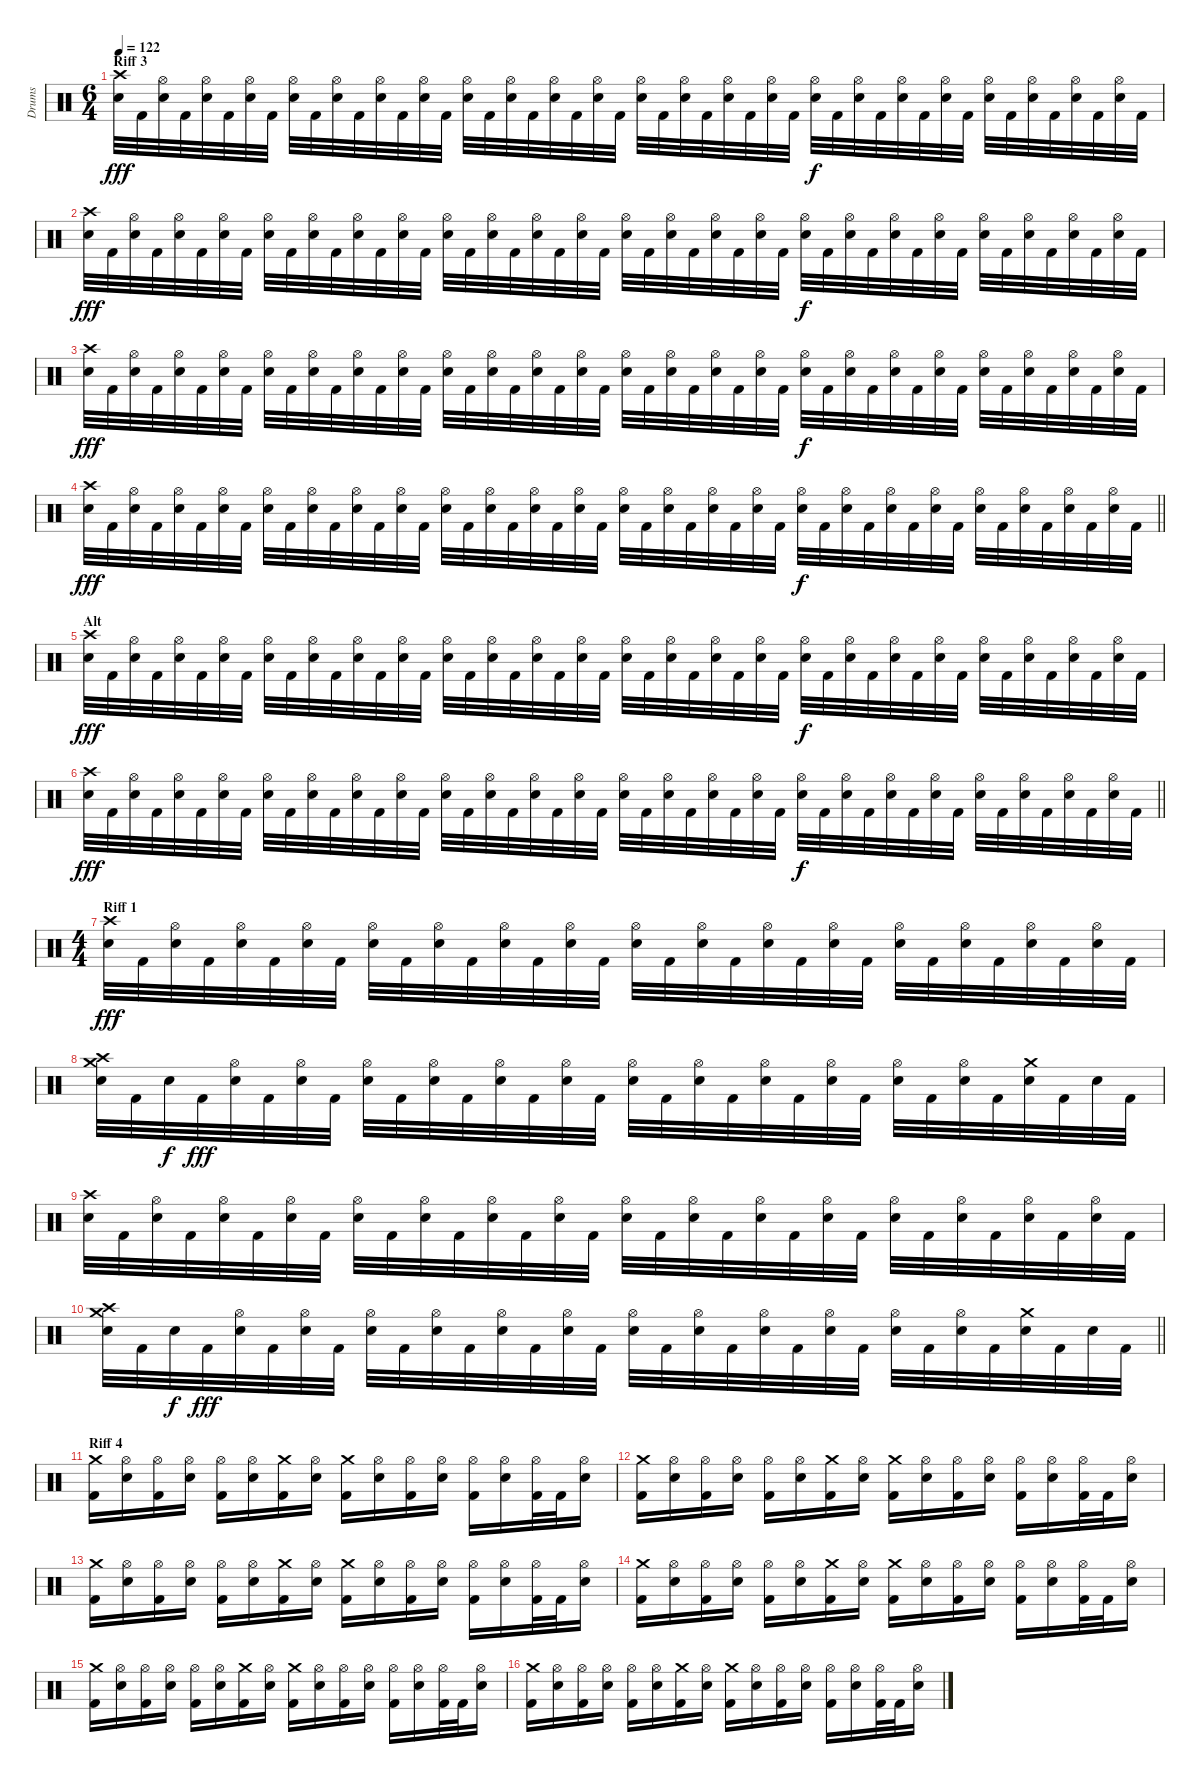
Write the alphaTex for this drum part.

\track ("Drums" "Drums") {instrument percussion}
\staff {score}
\articulation defaults
\ts (6 4)
\section ("" "Riff 3")
\tempo 122
\clef neutral
\ks c
("Snare (hit) 2" "Crash high (hit)").32{dy fff} "Kick (hit) 2".32 ("Snare (hit) 2" "Hi-Hat (open)").32 "Kick (hit) 2".32 ("Hi-Hat (open)" "Snare (hit) 2").32 "Kick (hit) 2".32 ("Snare (hit) 2" "Hi-Hat (open)").32 "Kick (hit) 2".32 ("Hi-Hat (open)" "Snare (hit) 2").32 "Kick (hit) 2".32 ("Snare (hit) 2" "Hi-Hat (open)").32 "Kick (hit) 2".32 ("Snare (hit) 2" "Hi-Hat (open)").32 "Kick (hit) 2".32 ("Hi-Hat (open)" "Snare (hit) 2").32 "Kick (hit) 2".32 ("Snare (hit) 2" "Hi-Hat (open)").32 "Kick (hit) 2".32 ("Hi-Hat (open)" "Snare (hit) 2").32 "Kick (hit) 2".32 ("Snare (hit) 2" "Hi-Hat (open)").32 "Kick (hit) 2".32 ("Snare (hit) 2" "Hi-Hat (open)").32 "Kick (hit) 2".32 ("Hi-Hat (open)" "Snare (hit) 2").32 "Kick (hit) 2".32 ("Snare (hit) 2" "Hi-Hat (open)").32 "Kick (hit) 2".32 ("Hi-Hat (open)" "Snare (hit) 2").32 "Kick (hit) 2".32 ("Snare (hit) 2" "Hi-Hat (open)").32 "Kick (hit) 2".32 ("Snare (hit) 2" "Hi-Hat (open)").32{dy f} "Kick (hit) 2".32 ("Snare (hit) 2" "Hi-Hat (open)").32 "Kick (hit) 2".32 ("Snare (hit) 2" "Hi-Hat (open)").32 "Kick (hit) 2".32 ("Snare (hit) 2" "Hi-Hat (open)").32 "Kick (hit) 2".32 ("Snare (hit) 2" "Hi-Hat (open)").32 "Kick (hit) 2".32 ("Snare (hit) 2" "Hi-Hat (open)").32 "Kick (hit) 2".32 ("Snare (hit) 2" "Hi-Hat (open)").32 "Kick (hit) 2".32 ("Snare (hit) 2" "Hi-Hat (open)").32 "Kick (hit) 2".32 |
("Snare (hit) 2" "Crash high (hit)").32{dy fff} "Kick (hit) 2".32 ("Snare (hit) 2" "Hi-Hat (open)").32 "Kick (hit) 2".32 ("Hi-Hat (open)" "Snare (hit) 2").32 "Kick (hit) 2".32 ("Snare (hit) 2" "Hi-Hat (open)").32 "Kick (hit) 2".32 ("Hi-Hat (open)" "Snare (hit) 2").32 "Kick (hit) 2".32 ("Snare (hit) 2" "Hi-Hat (open)").32 "Kick (hit) 2".32 ("Snare (hit) 2" "Hi-Hat (open)").32 "Kick (hit) 2".32 ("Hi-Hat (open)" "Snare (hit) 2").32 "Kick (hit) 2".32 ("Snare (hit) 2" "Hi-Hat (open)").32 "Kick (hit) 2".32 ("Hi-Hat (open)" "Snare (hit) 2").32 "Kick (hit) 2".32 ("Snare (hit) 2" "Hi-Hat (open)").32 "Kick (hit) 2".32 ("Snare (hit) 2" "Hi-Hat (open)").32 "Kick (hit) 2".32 ("Hi-Hat (open)" "Snare (hit) 2").32 "Kick (hit) 2".32 ("Snare (hit) 2" "Hi-Hat (open)").32 "Kick (hit) 2".32 ("Hi-Hat (open)" "Snare (hit) 2").32 "Kick (hit) 2".32 ("Snare (hit) 2" "Hi-Hat (open)").32 "Kick (hit) 2".32 ("Snare (hit) 2" "Hi-Hat (open)").32{dy f} "Kick (hit) 2".32 ("Snare (hit) 2" "Hi-Hat (open)").32 "Kick (hit) 2".32 ("Snare (hit) 2" "Hi-Hat (open)").32 "Kick (hit) 2".32 ("Snare (hit) 2" "Hi-Hat (open)").32 "Kick (hit) 2".32 ("Snare (hit) 2" "Hi-Hat (open)").32 "Kick (hit) 2".32 ("Snare (hit) 2" "Hi-Hat (open)").32 "Kick (hit) 2".32 ("Snare (hit) 2" "Hi-Hat (open)").32 "Kick (hit) 2".32 ("Snare (hit) 2" "Hi-Hat (open)").32 "Kick (hit) 2".32 |
("Snare (hit) 2" "Crash high (hit)").32{dy fff} "Kick (hit) 2".32 ("Snare (hit) 2" "Hi-Hat (open)").32 "Kick (hit) 2".32 ("Hi-Hat (open)" "Snare (hit) 2").32 "Kick (hit) 2".32 ("Snare (hit) 2" "Hi-Hat (open)").32 "Kick (hit) 2".32 ("Hi-Hat (open)" "Snare (hit) 2").32 "Kick (hit) 2".32 ("Snare (hit) 2" "Hi-Hat (open)").32 "Kick (hit) 2".32 ("Snare (hit) 2" "Hi-Hat (open)").32 "Kick (hit) 2".32 ("Hi-Hat (open)" "Snare (hit) 2").32 "Kick (hit) 2".32 ("Snare (hit) 2" "Hi-Hat (open)").32 "Kick (hit) 2".32 ("Hi-Hat (open)" "Snare (hit) 2").32 "Kick (hit) 2".32 ("Snare (hit) 2" "Hi-Hat (open)").32 "Kick (hit) 2".32 ("Snare (hit) 2" "Hi-Hat (open)").32 "Kick (hit) 2".32 ("Hi-Hat (open)" "Snare (hit) 2").32 "Kick (hit) 2".32 ("Snare (hit) 2" "Hi-Hat (open)").32 "Kick (hit) 2".32 ("Hi-Hat (open)" "Snare (hit) 2").32 "Kick (hit) 2".32 ("Snare (hit) 2" "Hi-Hat (open)").32 "Kick (hit) 2".32 ("Snare (hit) 2" "Hi-Hat (open)").32{dy f} "Kick (hit) 2".32 ("Snare (hit) 2" "Hi-Hat (open)").32 "Kick (hit) 2".32 ("Snare (hit) 2" "Hi-Hat (open)").32 "Kick (hit) 2".32 ("Snare (hit) 2" "Hi-Hat (open)").32 "Kick (hit) 2".32 ("Snare (hit) 2" "Hi-Hat (open)").32 "Kick (hit) 2".32 ("Snare (hit) 2" "Hi-Hat (open)").32 "Kick (hit) 2".32 ("Snare (hit) 2" "Hi-Hat (open)").32 "Kick (hit) 2".32 ("Snare (hit) 2" "Hi-Hat (open)").32 "Kick (hit) 2".32 |
\barLineRight lightlight
("Snare (hit) 2" "Crash high (hit)").32{dy fff} "Kick (hit) 2".32 ("Snare (hit) 2" "Hi-Hat (open)").32 "Kick (hit) 2".32 ("Hi-Hat (open)" "Snare (hit) 2").32 "Kick (hit) 2".32 ("Snare (hit) 2" "Hi-Hat (open)").32 "Kick (hit) 2".32 ("Hi-Hat (open)" "Snare (hit) 2").32 "Kick (hit) 2".32 ("Snare (hit) 2" "Hi-Hat (open)").32 "Kick (hit) 2".32 ("Snare (hit) 2" "Hi-Hat (open)").32 "Kick (hit) 2".32 ("Hi-Hat (open)" "Snare (hit) 2").32 "Kick (hit) 2".32 ("Snare (hit) 2" "Hi-Hat (open)").32 "Kick (hit) 2".32 ("Hi-Hat (open)" "Snare (hit) 2").32 "Kick (hit) 2".32 ("Snare (hit) 2" "Hi-Hat (open)").32 "Kick (hit) 2".32 ("Snare (hit) 2" "Hi-Hat (open)").32 "Kick (hit) 2".32 ("Hi-Hat (open)" "Snare (hit) 2").32 "Kick (hit) 2".32 ("Snare (hit) 2" "Hi-Hat (open)").32 "Kick (hit) 2".32 ("Hi-Hat (open)" "Snare (hit) 2").32 "Kick (hit) 2".32 ("Snare (hit) 2" "Hi-Hat (open)").32 "Kick (hit) 2".32 ("Snare (hit) 2" "Hi-Hat (open)").32{dy f} "Kick (hit) 2".32 ("Snare (hit) 2" "Hi-Hat (open)").32 "Kick (hit) 2".32 ("Snare (hit) 2" "Hi-Hat (open)").32 "Kick (hit) 2".32 ("Snare (hit) 2" "Hi-Hat (open)").32 "Kick (hit) 2".32 ("Snare (hit) 2" "Hi-Hat (open)").32 "Kick (hit) 2".32 ("Snare (hit) 2" "Hi-Hat (open)").32 "Kick (hit) 2".32 ("Snare (hit) 2" "Hi-Hat (open)").32 "Kick (hit) 2".32 ("Snare (hit) 2" "Hi-Hat (open)").32 "Kick (hit) 2".32 |
\section ("" "Alt")
("Snare (hit) 2" "Crash high (hit)").32{dy fff} "Kick (hit) 2".32 ("Snare (hit) 2" "Hi-Hat (open)").32 "Kick (hit) 2".32 ("Hi-Hat (open)" "Snare (hit) 2").32 "Kick (hit) 2".32 ("Snare (hit) 2" "Hi-Hat (open)").32 "Kick (hit) 2".32 ("Hi-Hat (open)" "Snare (hit) 2").32 "Kick (hit) 2".32 ("Snare (hit) 2" "Hi-Hat (open)").32 "Kick (hit) 2".32 ("Snare (hit) 2" "Hi-Hat (open)").32 "Kick (hit) 2".32 ("Hi-Hat (open)" "Snare (hit) 2").32 "Kick (hit) 2".32 ("Snare (hit) 2" "Hi-Hat (open)").32 "Kick (hit) 2".32 ("Hi-Hat (open)" "Snare (hit) 2").32 "Kick (hit) 2".32 ("Snare (hit) 2" "Hi-Hat (open)").32 "Kick (hit) 2".32 ("Snare (hit) 2" "Hi-Hat (open)").32 "Kick (hit) 2".32 ("Hi-Hat (open)" "Snare (hit) 2").32 "Kick (hit) 2".32 ("Snare (hit) 2" "Hi-Hat (open)").32 "Kick (hit) 2".32 ("Hi-Hat (open)" "Snare (hit) 2").32 "Kick (hit) 2".32 ("Snare (hit) 2" "Hi-Hat (open)").32 "Kick (hit) 2".32 ("Snare (hit) 2" "Hi-Hat (open)").32{dy f} "Kick (hit) 2".32 ("Snare (hit) 2" "Hi-Hat (open)").32 "Kick (hit) 2".32 ("Snare (hit) 2" "Hi-Hat (open)").32 "Kick (hit) 2".32 ("Snare (hit) 2" "Hi-Hat (open)").32 "Kick (hit) 2".32 ("Snare (hit) 2" "Hi-Hat (open)").32 "Kick (hit) 2".32 ("Snare (hit) 2" "Hi-Hat (open)").32 "Kick (hit) 2".32 ("Snare (hit) 2" "Hi-Hat (open)").32 "Kick (hit) 2".32 ("Snare (hit) 2" "Hi-Hat (open)").32 "Kick (hit) 2".32 |
\barLineRight lightlight
("Snare (hit) 2" "Crash high (hit)").32{dy fff} "Kick (hit) 2".32 ("Snare (hit) 2" "Hi-Hat (open)").32 "Kick (hit) 2".32 ("Hi-Hat (open)" "Snare (hit) 2").32 "Kick (hit) 2".32 ("Snare (hit) 2" "Hi-Hat (open)").32 "Kick (hit) 2".32 ("Hi-Hat (open)" "Snare (hit) 2").32 "Kick (hit) 2".32 ("Snare (hit) 2" "Hi-Hat (open)").32 "Kick (hit) 2".32 ("Snare (hit) 2" "Hi-Hat (open)").32 "Kick (hit) 2".32 ("Hi-Hat (open)" "Snare (hit) 2").32 "Kick (hit) 2".32 ("Snare (hit) 2" "Hi-Hat (open)").32 "Kick (hit) 2".32 ("Hi-Hat (open)" "Snare (hit) 2").32 "Kick (hit) 2".32 ("Snare (hit) 2" "Hi-Hat (open)").32 "Kick (hit) 2".32 ("Snare (hit) 2" "Hi-Hat (open)").32 "Kick (hit) 2".32 ("Hi-Hat (open)" "Snare (hit) 2").32 "Kick (hit) 2".32 ("Snare (hit) 2" "Hi-Hat (open)").32 "Kick (hit) 2".32 ("Hi-Hat (open)" "Snare (hit) 2").32 "Kick (hit) 2".32 ("Snare (hit) 2" "Hi-Hat (open)").32 "Kick (hit) 2".32 ("Snare (hit) 2" "Hi-Hat (open)").32{dy f} "Kick (hit) 2".32 ("Snare (hit) 2" "Hi-Hat (open)").32 "Kick (hit) 2".32 ("Snare (hit) 2" "Hi-Hat (open)").32 "Kick (hit) 2".32 ("Snare (hit) 2" "Hi-Hat (open)").32 "Kick (hit) 2".32 ("Snare (hit) 2" "Hi-Hat (open)").32 "Kick (hit) 2".32 ("Snare (hit) 2" "Hi-Hat (open)").32 "Kick (hit) 2".32 ("Snare (hit) 2" "Hi-Hat (open)").32 "Kick (hit) 2".32 ("Snare (hit) 2" "Hi-Hat (open)").32 "Kick (hit) 2".32 |
\ts (4 4)
\section ("" "Riff 1")
("Snare (hit) 2" "Crash high (hit)").32{dy fff} "Kick (hit) 2".32 ("Snare (hit) 2" "Hi-Hat (open)").32 "Kick (hit) 2".32 ("Hi-Hat (open)" "Snare (hit) 2").32 "Kick (hit) 2".32 ("Snare (hit) 2" "Hi-Hat (open)").32 "Kick (hit) 2".32 ("Hi-Hat (open)" "Snare (hit) 2").32 "Kick (hit) 2".32 ("Snare (hit) 2" "Hi-Hat (open)").32 "Kick (hit) 2".32 ("Snare (hit) 2" "Hi-Hat (open)").32 "Kick (hit) 2".32 ("Hi-Hat (open)" "Snare (hit) 2").32 "Kick (hit) 2".32 ("Snare (hit) 2" "Hi-Hat (open)").32 "Kick (hit) 2".32 ("Hi-Hat (open)" "Snare (hit) 2").32 "Kick (hit) 2".32 ("Snare (hit) 2" "Hi-Hat (open)").32 "Kick (hit) 2".32 ("Snare (hit) 2" "Hi-Hat (open)").32 "Kick (hit) 2".32 ("Hi-Hat (open)" "Snare (hit) 2").32 "Kick (hit) 2".32 ("Snare (hit) 2" "Hi-Hat (open)").32 "Kick (hit) 2".32 ("Hi-Hat (open)" "Snare (hit) 2").32 "Kick (hit) 2".32 ("Snare (hit) 2" "Hi-Hat (open)").32 "Kick (hit) 2".32 |
("Snare (hit) 2" "Crash high (hit)" "Crash medium (hit)").32 "Kick (hit) 2".32 "Snare (hit) 2".32{dy f} "Kick (hit) 2".32{dy fff} ("Snare (hit) 2" "Hi-Hat (open)").32 "Kick (hit) 2".32 ("Hi-Hat (open)" "Snare (hit) 2").32 "Kick (hit) 2".32 ("Snare (hit) 2" "Hi-Hat (open)").32 "Kick (hit) 2".32 ("Snare (hit) 2" "Hi-Hat (open)").32 "Kick (hit) 2".32 ("Hi-Hat (open)" "Snare (hit) 2").32 "Kick (hit) 2".32 ("Snare (hit) 2" "Hi-Hat (open)").32 "Kick (hit) 2".32 ("Hi-Hat (open)" "Snare (hit) 2").32 "Kick (hit) 2".32 ("Snare (hit) 2" "Hi-Hat (open)").32 "Kick (hit) 2".32 ("Snare (hit) 2" "Hi-Hat (open)").32 "Kick (hit) 2".32 ("Hi-Hat (open)" "Snare (hit) 2").32 "Kick (hit) 2".32 ("Snare (hit) 2" "Hi-Hat (open)").32 "Kick (hit) 2".32 ("Hi-Hat (open)" "Snare (hit) 2").32 "Kick (hit) 2".32 ("Snare (hit) 2" "Crash medium (hit)").32 "Kick (hit) 2".32 "Snare (hit) 2".32 "Kick (hit) 2".32 |
("Snare (hit) 2" "Crash high (hit)").32 "Kick (hit) 2".32 ("Snare (hit) 2" "Hi-Hat (open)").32 "Kick (hit) 2".32 ("Hi-Hat (open)" "Snare (hit) 2").32 "Kick (hit) 2".32 ("Snare (hit) 2" "Hi-Hat (open)").32 "Kick (hit) 2".32 ("Hi-Hat (open)" "Snare (hit) 2").32 "Kick (hit) 2".32 ("Snare (hit) 2" "Hi-Hat (open)").32 "Kick (hit) 2".32 ("Snare (hit) 2" "Hi-Hat (open)").32 "Kick (hit) 2".32 ("Hi-Hat (open)" "Snare (hit) 2").32 "Kick (hit) 2".32 ("Snare (hit) 2" "Hi-Hat (open)").32 "Kick (hit) 2".32 ("Hi-Hat (open)" "Snare (hit) 2").32 "Kick (hit) 2".32 ("Snare (hit) 2" "Hi-Hat (open)").32 "Kick (hit) 2".32 ("Snare (hit) 2" "Hi-Hat (open)").32 "Kick (hit) 2".32 ("Hi-Hat (open)" "Snare (hit) 2").32 "Kick (hit) 2".32 ("Snare (hit) 2" "Hi-Hat (open)").32 "Kick (hit) 2".32 ("Hi-Hat (open)" "Snare (hit) 2").32 "Kick (hit) 2".32 ("Snare (hit) 2" "Hi-Hat (open)").32 "Kick (hit) 2".32 |
\barLineRight lightlight
("Snare (hit) 2" "Crash high (hit)" "Crash medium (hit)").32 "Kick (hit) 2".32 "Snare (hit) 2".32{dy f} "Kick (hit) 2".32{dy fff} ("Snare (hit) 2" "Hi-Hat (open)").32 "Kick (hit) 2".32 ("Hi-Hat (open)" "Snare (hit) 2").32 "Kick (hit) 2".32 ("Snare (hit) 2" "Hi-Hat (open)").32 "Kick (hit) 2".32 ("Snare (hit) 2" "Hi-Hat (open)").32 "Kick (hit) 2".32 ("Hi-Hat (open)" "Snare (hit) 2").32 "Kick (hit) 2".32 ("Snare (hit) 2" "Hi-Hat (open)").32 "Kick (hit) 2".32 ("Hi-Hat (open)" "Snare (hit) 2").32 "Kick (hit) 2".32 ("Snare (hit) 2" "Hi-Hat (open)").32 "Kick (hit) 2".32 ("Snare (hit) 2" "Hi-Hat (open)").32 "Kick (hit) 2".32 ("Hi-Hat (open)" "Snare (hit) 2").32 "Kick (hit) 2".32 ("Snare (hit) 2" "Hi-Hat (open)").32 "Kick (hit) 2".32 ("Hi-Hat (open)" "Snare (hit) 2").32 "Kick (hit) 2".32 ("Snare (hit) 2" "Crash medium (hit)").32 "Kick (hit) 2".32 "Snare (hit) 2".32 "Kick (hit) 2".32 |
\section ("" "Riff 4")
("Kick (hit) 2" "Crash medium (hit)").16 ("Snare (hit) 2" "Hi-Hat (open)").16 ("Kick (hit) 2" "Hi-Hat (open)").16 ("Snare (hit) 2" "Hi-Hat (open)").16 ("Kick (hit) 2" "Hi-Hat (open)").16 ("Snare (hit) 2" "Hi-Hat (open)").16 ("Kick (hit) 2" "Crash medium (hit)").16 ("Snare (hit) 2" "Hi-Hat (open)").16 ("Kick (hit) 2" "Crash medium (hit)").16 ("Snare (hit) 2" "Hi-Hat (open)").16 ("Kick (hit) 2" "Hi-Hat (open)").16 ("Snare (hit) 2" "Hi-Hat (open)").16 ("Kick (hit) 2" "Hi-Hat (open)").16 ("Snare (hit) 2" "Hi-Hat (open)").16 ("Kick (hit) 2" "Hi-Hat (open)").32 "Kick (hit) 2".32 ("Snare (hit) 2" "Hi-Hat (open)").16 |
("Kick (hit) 2" "Crash medium (hit)").16 ("Snare (hit) 2" "Hi-Hat (open)").16 ("Kick (hit) 2" "Hi-Hat (open)").16 ("Snare (hit) 2" "Hi-Hat (open)").16 ("Kick (hit) 2" "Hi-Hat (open)").16 ("Snare (hit) 2" "Hi-Hat (open)").16 ("Kick (hit) 2" "Crash medium (hit)").16 ("Snare (hit) 2" "Hi-Hat (open)").16 ("Kick (hit) 2" "Crash medium (hit)").16 ("Snare (hit) 2" "Hi-Hat (open)").16 ("Kick (hit) 2" "Hi-Hat (open)").16 ("Snare (hit) 2" "Hi-Hat (open)").16 ("Kick (hit) 2" "Hi-Hat (open)").16 ("Snare (hit) 2" "Hi-Hat (open)").16 ("Kick (hit) 2" "Hi-Hat (open)").32 "Kick (hit) 2".32 ("Snare (hit) 2" "Hi-Hat (open)").16 |
("Kick (hit) 2" "Crash medium (hit)").16 ("Snare (hit) 2" "Hi-Hat (open)").16 ("Kick (hit) 2" "Hi-Hat (open)").16 ("Snare (hit) 2" "Hi-Hat (open)").16 ("Kick (hit) 2" "Hi-Hat (open)").16 ("Snare (hit) 2" "Hi-Hat (open)").16 ("Kick (hit) 2" "Crash medium (hit)").16 ("Snare (hit) 2" "Hi-Hat (open)").16 ("Kick (hit) 2" "Crash medium (hit)").16 ("Snare (hit) 2" "Hi-Hat (open)").16 ("Kick (hit) 2" "Hi-Hat (open)").16 ("Snare (hit) 2" "Hi-Hat (open)").16 ("Kick (hit) 2" "Hi-Hat (open)").16 ("Snare (hit) 2" "Hi-Hat (open)").16 ("Kick (hit) 2" "Hi-Hat (open)").32 "Kick (hit) 2".32 ("Snare (hit) 2" "Hi-Hat (open)").16 |
("Kick (hit) 2" "Crash medium (hit)").16 ("Snare (hit) 2" "Hi-Hat (open)").16 ("Kick (hit) 2" "Hi-Hat (open)").16 ("Snare (hit) 2" "Hi-Hat (open)").16 ("Kick (hit) 2" "Hi-Hat (open)").16 ("Snare (hit) 2" "Hi-Hat (open)").16 ("Kick (hit) 2" "Crash medium (hit)").16 ("Snare (hit) 2" "Hi-Hat (open)").16 ("Kick (hit) 2" "Crash medium (hit)").16 ("Snare (hit) 2" "Hi-Hat (open)").16 ("Kick (hit) 2" "Hi-Hat (open)").16 ("Snare (hit) 2" "Hi-Hat (open)").16 ("Kick (hit) 2" "Hi-Hat (open)").16 ("Snare (hit) 2" "Hi-Hat (open)").16 ("Kick (hit) 2" "Hi-Hat (open)").32 "Kick (hit) 2".32 ("Snare (hit) 2" "Hi-Hat (open)").16 |
("Kick (hit) 2" "Crash medium (hit)").16 ("Snare (hit) 2" "Hi-Hat (open)").16 ("Kick (hit) 2" "Hi-Hat (open)").16 ("Snare (hit) 2" "Hi-Hat (open)").16 ("Kick (hit) 2" "Hi-Hat (open)").16 ("Snare (hit) 2" "Hi-Hat (open)").16 ("Kick (hit) 2" "Crash medium (hit)").16 ("Snare (hit) 2" "Hi-Hat (open)").16 ("Kick (hit) 2" "Crash medium (hit)").16 ("Snare (hit) 2" "Hi-Hat (open)").16 ("Kick (hit) 2" "Hi-Hat (open)").16 ("Snare (hit) 2" "Hi-Hat (open)").16 ("Kick (hit) 2" "Hi-Hat (open)").16 ("Snare (hit) 2" "Hi-Hat (open)").16 ("Kick (hit) 2" "Hi-Hat (open)").32 "Kick (hit) 2".32 ("Snare (hit) 2" "Hi-Hat (open)").16 |
("Kick (hit) 2" "Crash medium (hit)").16 ("Snare (hit) 2" "Hi-Hat (open)").16 ("Kick (hit) 2" "Hi-Hat (open)").16 ("Snare (hit) 2" "Hi-Hat (open)").16 ("Kick (hit) 2" "Hi-Hat (open)").16 ("Snare (hit) 2" "Hi-Hat (open)").16 ("Kick (hit) 2" "Crash medium (hit)").16 ("Snare (hit) 2" "Hi-Hat (open)").16 ("Kick (hit) 2" "Crash medium (hit)").16 ("Snare (hit) 2" "Hi-Hat (open)").16 ("Kick (hit) 2" "Hi-Hat (open)").16 ("Snare (hit) 2" "Hi-Hat (open)").16 ("Kick (hit) 2" "Hi-Hat (open)").16 ("Snare (hit) 2" "Hi-Hat (open)").16 ("Kick (hit) 2" "Hi-Hat (open)").32 "Kick (hit) 2".32 ("Snare (hit) 2" "Hi-Hat (open)").16
